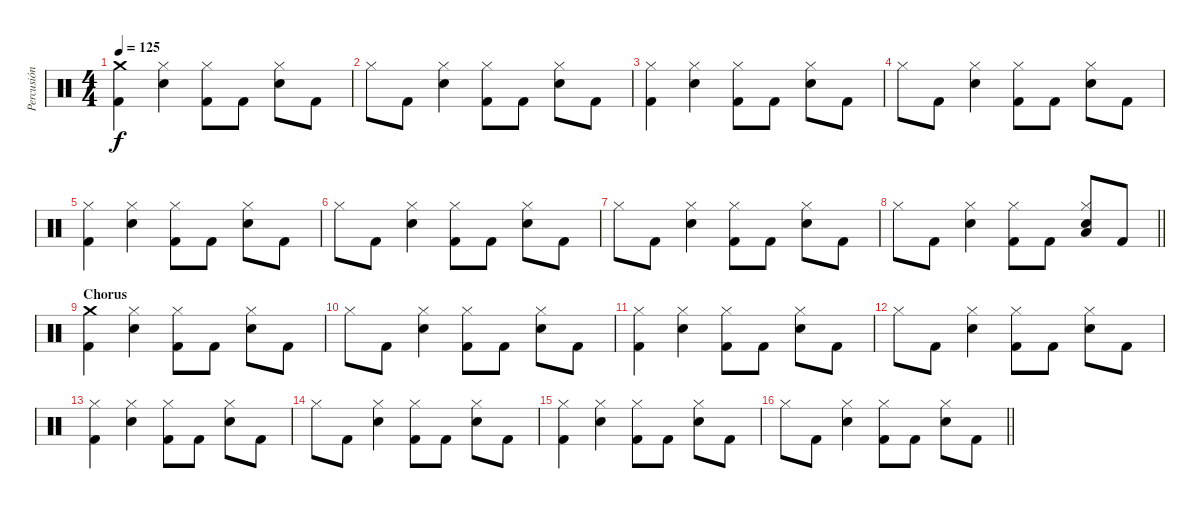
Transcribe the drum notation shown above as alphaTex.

\track ("Percusión" "Percusión") {instrument percussion}
\staff {score}
\articulation defaults
\ts (4 4)
\tempo 125
\clef neutral
\ks c
("Crash medium (hit)" "Kick (hit) 2").4{dy f} ("Snare (hit) 2" "Hi-Hat (closed)").4 ("Kick (hit) 2" "Hi-Hat (closed)").8 "Kick (hit) 2".8 ("Hi-Hat (closed)" "Snare (hit) 2").8 "Kick (hit) 2".8 |
"Hi-Hat (closed)".8 "Kick (hit) 2".8 ("Hi-Hat (closed)" "Snare (hit) 2").4 ("Hi-Hat (closed)" "Kick (hit) 2").8 "Kick (hit) 2".8 ("Hi-Hat (closed)" "Snare (hit) 2").8 "Kick (hit) 2".8 |
("Hi-Hat (closed)" "Kick (hit) 2").4 ("Snare (hit) 2" "Hi-Hat (closed)").4 ("Kick (hit) 2" "Hi-Hat (closed)").8 "Kick (hit) 2".8 ("Hi-Hat (closed)" "Snare (hit) 2").8 "Kick (hit) 2".8 |
"Hi-Hat (closed)".8 "Kick (hit) 2".8 ("Hi-Hat (closed)" "Snare (hit) 2").4 ("Hi-Hat (closed)" "Kick (hit) 2").8 "Kick (hit) 2".8 ("Hi-Hat (closed)" "Snare (hit) 2").8 "Kick (hit) 2".8 |
("Hi-Hat (closed)" "Kick (hit) 2").4 ("Snare (hit) 2" "Hi-Hat (closed)").4 ("Kick (hit) 2" "Hi-Hat (closed)").8 "Kick (hit) 2".8 ("Hi-Hat (closed)" "Snare (hit) 2").8 "Kick (hit) 2".8 |
"Hi-Hat (closed)".8 "Kick (hit) 2".8 ("Hi-Hat (closed)" "Snare (hit) 2").4 ("Hi-Hat (closed)" "Kick (hit) 2").8 "Kick (hit) 2".8 ("Hi-Hat (closed)" "Snare (hit) 2").8 "Kick (hit) 2".8 |
"Hi-Hat (closed)".8 "Kick (hit) 2".8 ("Hi-Hat (closed)" "Snare (hit) 2").4 ("Hi-Hat (closed)" "Kick (hit) 2").8 "Kick (hit) 2".8 ("Hi-Hat (closed)" "Snare (hit) 2").8 "Kick (hit) 2".8 |
\barLineRight lightlight "Hi-Hat (closed)".8 "Kick (hit) 2".8
("Hi-Hat (closed)" "Snare (hit) 2").4 ("Hi-Hat (closed)" "Kick (hit) 2").8 "Kick (hit) 2".8 ("Hi-Hat (closed)" "Snare (hit) 2" "Low Floor Tom (hit)").8 "Kick (hit) 2".8 |
\section ("" "Chorus")
("Crash medium (hit)" "Kick (hit) 2").4 ("Snare (hit) 2" "Hi-Hat (closed)").4 ("Kick (hit) 2" "Hi-Hat (closed)").8 "Kick (hit) 2".8 ("Hi-Hat (closed)" "Snare (hit) 2").8 "Kick (hit) 2".8 |
"Hi-Hat (closed)".8 "Kick (hit) 2".8 ("Hi-Hat (closed)" "Snare (hit) 2").4 ("Hi-Hat (closed)" "Kick (hit) 2").8 "Kick (hit) 2".8 ("Hi-Hat (closed)" "Snare (hit) 2").8 "Kick (hit) 2".8 |
("Hi-Hat (closed)" "Kick (hit) 2").4 ("Snare (hit) 2" "Hi-Hat (closed)").4 ("Kick (hit) 2" "Hi-Hat (closed)").8 "Kick (hit) 2".8 ("Hi-Hat (closed)" "Snare (hit) 2").8 "Kick (hit) 2".8 |
"Hi-Hat (closed)".8 "Kick (hit) 2".8 ("Hi-Hat (closed)" "Snare (hit) 2").4 ("Hi-Hat (closed)" "Kick (hit) 2").8 "Kick (hit) 2".8 ("Hi-Hat (closed)" "Snare (hit) 2").8 "Kick (hit) 2".8 |
("Hi-Hat (closed)" "Kick (hit) 2").4 ("Snare (hit) 2" "Hi-Hat (closed)").4 ("Kick (hit) 2" "Hi-Hat (closed)").8 "Kick (hit) 2".8 ("Hi-Hat (closed)" "Snare (hit) 2").8 "Kick (hit) 2".8 |
"Hi-Hat (closed)".8 "Kick (hit) 2".8 ("Hi-Hat (closed)" "Snare (hit) 2").4 ("Hi-Hat (closed)" "Kick (hit) 2").8 "Kick (hit) 2".8 ("Hi-Hat (closed)" "Snare (hit) 2").8 "Kick (hit) 2".8 |
("Hi-Hat (closed)" "Kick (hit) 2").4 ("Snare (hit) 2" "Hi-Hat (closed)").4 ("Kick (hit) 2" "Hi-Hat (closed)").8 "Kick (hit) 2".8 ("Hi-Hat (closed)" "Snare (hit) 2").8 "Kick (hit) 2".8 |
\barLineRight lightlight "Hi-Hat (closed)".8 "Kick (hit) 2".8
("Hi-Hat (closed)" "Snare (hit) 2").4 ("Hi-Hat (closed)" "Kick (hit) 2").8 "Kick (hit) 2".8 ("Hi-Hat (closed)" "Snare (hit) 2").8 "Kick (hit) 2".8
